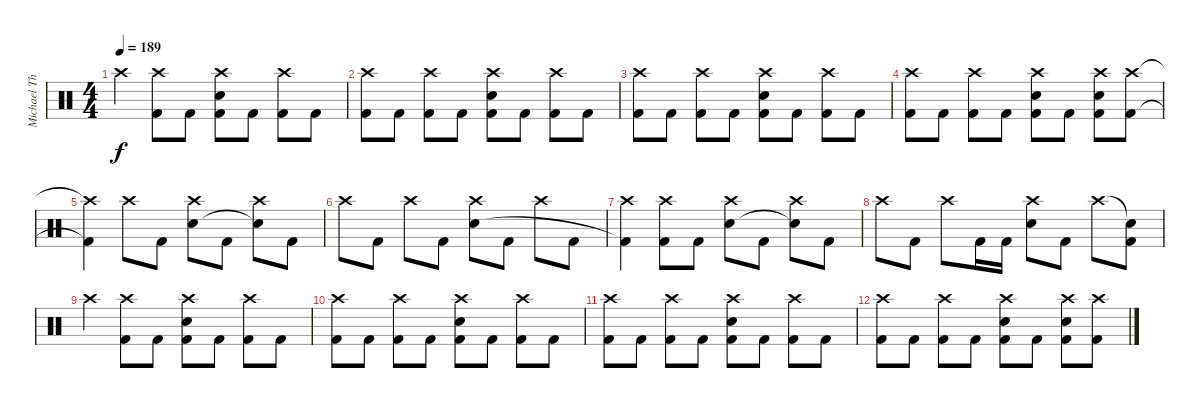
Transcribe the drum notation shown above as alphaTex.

\track ("Michael Thomas" "Michael Th") {instrument percussion}
\staff {score}
\articulation defaults
\ts (4 4)
\tempo 189
\clef neutral
\ks c "Crash high (hit)".4{dy f}
("Crash high (hit)" "Kick (hit) 2").8 "Kick (hit) 2".8 ("Crash high (hit)" "Electric Snare (hit)" "Kick (hit) 2").8 "Kick (hit) 2".8 ("Crash high (hit)" "Kick (hit) 2").8 "Kick (hit) 2".8 |
("Crash high (hit)" "Kick (hit) 2").8 "Kick (hit) 2".8 ("Crash high (hit)" "Kick (hit) 2").8 "Kick (hit) 2".8 ("Crash high (hit)" "Electric Snare (hit)" "Kick (hit) 2").8 "Kick (hit) 2".8 ("Crash high (hit)" "Kick (hit) 2").8 "Kick (hit) 2".8 |
("Crash high (hit)" "Kick (hit) 2").8 "Kick (hit) 2".8 ("Crash high (hit)" "Kick (hit) 2").8 "Kick (hit) 2".8 ("Crash high (hit)" "Electric Snare (hit)" "Kick (hit) 2").8 "Kick (hit) 2".8 ("Crash high (hit)" "Kick (hit) 2").8 "Kick (hit) 2".8 |
("Crash high (hit)" "Kick (hit) 2").8 "Kick (hit) 2".8 ("Crash high (hit)" "Kick (hit) 2").8 "Kick (hit) 2".8 ("Crash high (hit)" "Electric Snare (hit)" "Kick (hit) 2").8 "Kick (hit) 2".8 ("Crash high (hit)" "Electric Snare (hit)" "Kick (hit) 2").8 ("Crash high (hit)" "Kick (hit) 2").8 |
("Crash high (hit)"{t} "Kick (hit) 2"{t}).4 "Crash high (hit)".8 "Kick (hit) 2".8 ("Crash high (hit)" "Electric Snare (hit)").8 "Kick (hit) 2".8 ("Crash high (hit)" "Snare (hit)"{t}).8 "Kick (hit) 2".8 |
"Crash high (hit)".8 "Kick (hit) 2".8 "Crash high (hit)".8 "Kick (hit) 2".8 ("Crash high (hit)" "Electric Snare (hit)").8 "Kick (hit) 2".8 "Crash high (hit)".8 "Kick (hit) 2".8 |
("Crash high (hit)" "Kick (hit) 2"{t}).4 ("Crash high (hit)" "Kick (hit) 2").8 "Kick (hit) 2".8 ("Crash high (hit)" "Electric Snare (hit)").8 "Kick (hit) 2".8 ("Crash high (hit)" "Snare (hit)"{t}).8 "Kick (hit) 2".8 |
"Crash high (hit)".8 "Kick (hit) 2".8 "Crash high (hit)".8 "Kick (hit) 2".16 "Kick (hit) 2".16 ("Crash high (hit)" "Electric Snare (hit)").8 "Kick (hit) 2".8 "Crash high (hit)".8 ("Snare (hit)"{t} "Kick (hit) 2").8 |
"Crash high (hit)".4 ("Crash high (hit)" "Kick (hit) 2").8 "Kick (hit) 2".8 ("Crash high (hit)" "Electric Snare (hit)" "Kick (hit) 2").8 "Kick (hit) 2".8 ("Crash high (hit)" "Kick (hit) 2").8 "Kick (hit) 2".8 |
("Crash high (hit)" "Kick (hit) 2").8 "Kick (hit) 2".8 ("Crash high (hit)" "Kick (hit) 2").8 "Kick (hit) 2".8 ("Crash high (hit)" "Electric Snare (hit)" "Kick (hit) 2").8 "Kick (hit) 2".8 ("Crash high (hit)" "Kick (hit) 2").8 "Kick (hit) 2".8 |
("Crash high (hit)" "Kick (hit) 2").8 "Kick (hit) 2".8 ("Crash high (hit)" "Kick (hit) 2").8 "Kick (hit) 2".8 ("Crash high (hit)" "Electric Snare (hit)" "Kick (hit) 2").8 "Kick (hit) 2".8 ("Crash high (hit)" "Kick (hit) 2").8 "Kick (hit) 2".8 |
("Crash high (hit)" "Kick (hit) 2").8 "Kick (hit) 2".8 ("Crash high (hit)" "Kick (hit) 2").8 "Kick (hit) 2".8 ("Crash high (hit)" "Electric Snare (hit)" "Kick (hit) 2").8 "Kick (hit) 2".8 ("Crash high (hit)" "Electric Snare (hit)" "Kick (hit) 2").8 ("Crash high (hit)" "Kick (hit) 2").8
